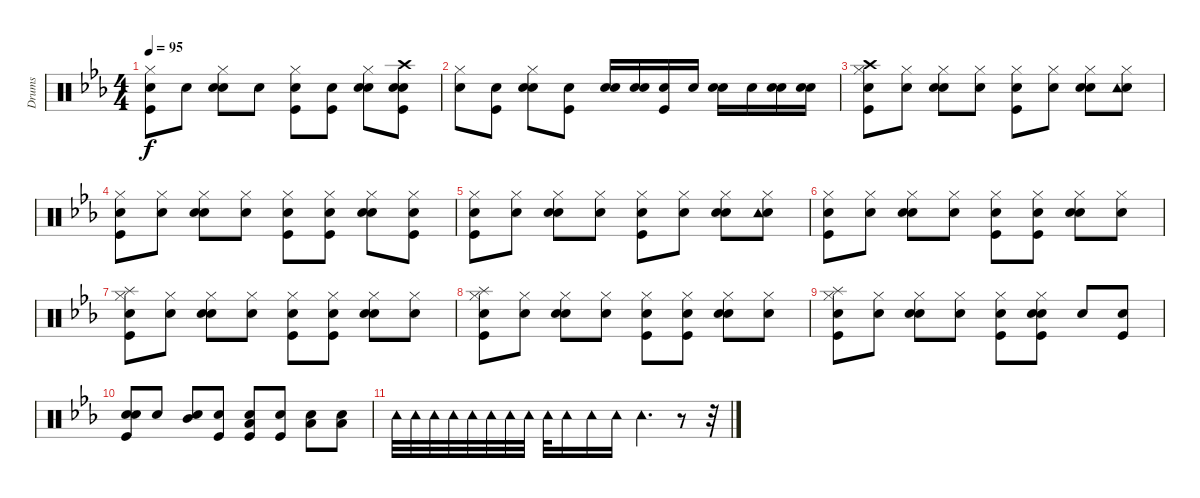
\track ("Drums" "Drums") {instrument percussion}
\staff {score}
\articulation defaults
\ts (4 4)
\tempo 95
\clef neutral
\ks cminor
("Hi-Hat (closed)" "Snare (hit)" "Kick (hit)").8{dy f} "Snare (hit)".8 ("Hi-Hat (closed)" "Snare (hit)" "Snare (hit) 2").8 "Snare (hit)".8 ("Hi-Hat (closed)" "Snare (hit)" "Kick (hit)").8 ("Snare (hit)" "Kick (hit)").8 ("Hi-Hat (closed)" "Snare (hit)" "Snare (hit) 2").8 ("Crash high (hit)" "Snare (hit)" "Snare (hit) 2" "Kick (hit)").8 |
("Hi-Hat (closed)" "Snare (hit)").8 ("Snare (hit)" "Kick (hit)").8 ("Hi-Hat (closed)" "Snare (hit)" "Snare (hit) 2").8 ("Snare (hit)" "Kick (hit)").8 ("Snare (hit)" "Snare (hit) 2").16 ("Snare (hit)" "Snare (hit) 2").16 ("Snare (hit)" "Kick (hit)").16 "Snare (hit)".16 ("Snare (hit)" "Snare (hit) 2").16 "Snare (hit)".16 ("Snare (hit)" "Snare (hit) 2").16 ("Snare (hit)" "Snare (hit) 2").16 |
("Hi-Hat (closed)" "Snare (hit)" "Crash high (hit)" "Kick (hit)").8 ("Hi-Hat (closed)" "Snare (hit)").8 ("Hi-Hat (closed)" "Snare (hit)" "Snare (hit) 2").8 ("Hi-Hat (closed)" "Snare (hit)").8 ("Hi-Hat (closed)" "Snare (hit)" "Kick (hit)").8 ("Hi-Hat (closed)" "Snare (hit)").8 ("Hi-Hat (closed)" "Snare (hit)" "Snare (hit) 2").8 ("Hi-Hat (closed)" "Snare (hit)" "Tambourine (hit)").8 |
("Hi-Hat (closed)" "Snare (hit)" "Kick (hit)").8 ("Hi-Hat (closed)" "Snare (hit)").8 ("Hi-Hat (closed)" "Snare (hit)" "Snare (hit) 2").8 ("Hi-Hat (closed)" "Snare (hit)").8 ("Hi-Hat (closed)" "Snare (hit)" "Kick (hit)").8 ("Hi-Hat (closed)" "Snare (hit)" "Kick (hit)").8 ("Hi-Hat (closed)" "Snare (hit)" "Snare (hit) 2").8 ("Hi-Hat (closed)" "Snare (hit)" "Kick (hit)").8 |
("Hi-Hat (closed)" "Snare (hit)" "Kick (hit)").8 ("Hi-Hat (closed)" "Snare (hit)").8 ("Hi-Hat (closed)" "Snare (hit)" "Snare (hit) 2").8 ("Hi-Hat (closed)" "Snare (hit)").8 ("Hi-Hat (closed)" "Snare (hit)" "Kick (hit)").8 ("Hi-Hat (closed)" "Snare (hit)").8 ("Hi-Hat (closed)" "Snare (hit)" "Snare (hit) 2").8 ("Hi-Hat (closed)" "Snare (hit)" "Tambourine (hit)").8 |
("Hi-Hat (closed)" "Snare (hit)" "Kick (hit)").8 ("Hi-Hat (closed)" "Snare (hit)").8 ("Hi-Hat (closed)" "Snare (hit)" "Snare (hit) 2").8 ("Hi-Hat (closed)" "Snare (hit)").8 ("Hi-Hat (closed)" "Snare (hit)" "Kick (hit)").8 ("Hi-Hat (closed)" "Snare (hit)" "Kick (hit)").8 ("Hi-Hat (closed)" "Snare (hit)" "Snare (hit) 2").8 ("Hi-Hat (closed)" "Snare (hit)").8 |
("Hi-Hat (closed)" "Snare (hit)" "Splash (hit)" "Kick (hit)").8 ("Hi-Hat (closed)" "Snare (hit)").8 ("Hi-Hat (closed)" "Snare (hit)" "Snare (hit) 2").8 ("Hi-Hat (closed)" "Snare (hit)").8 ("Hi-Hat (closed)" "Snare (hit)" "Kick (hit)").8 ("Hi-Hat (closed)" "Snare (hit)" "Kick (hit)").8 ("Hi-Hat (closed)" "Snare (hit)" "Snare (hit) 2").8 ("Hi-Hat (closed)" "Snare (hit)").8 |
("Hi-Hat (closed)" "Snare (hit)" "Splash (hit)" "Kick (hit)").8 ("Hi-Hat (closed)" "Snare (hit)").8 ("Hi-Hat (closed)" "Snare (hit)" "Snare (hit) 2").8 ("Hi-Hat (closed)" "Snare (hit)").8 ("Hi-Hat (closed)" "Snare (hit)" "Kick (hit)").8 ("Hi-Hat (closed)" "Snare (hit)" "Kick (hit)").8 ("Hi-Hat (closed)" "Snare (hit)" "Snare (hit) 2").8 ("Hi-Hat (closed)" "Snare (hit)").8 |
("Hi-Hat (closed)" "Snare (hit)" "Splash (hit)" "Kick (hit)").8 ("Hi-Hat (closed)" "Snare (hit)").8 ("Hi-Hat (closed)" "Snare (hit)" "Snare (hit) 2").8 ("Hi-Hat (closed)" "Snare (hit)").8 ("Hi-Hat (closed)" "Snare (hit)" "Kick (hit)").8 ("Hi-Hat (closed)" "Snare (hit)" "Snare (hit) 2" "Kick (hit)").8 "Snare (hit)".8 ("Snare (hit)" "Kick (hit)").8 |
("Snare (hit)" "Snare (hit) 2" "Kick (hit)").8 "Snare (hit)".8 ("Snare (hit)" "Mid Tom (hit)").8 ("Snare (hit)" "Kick (hit)").8 ("Snare (hit)" "Low Tom (hit)" "Kick (hit)").8 ("Snare (hit)" "Kick (hit)").8 ("Snare (hit)" "Low Floor Tom (hit)").8 ("Snare (hit)" "Low Floor Tom (hit)").8 |
"Tambourine (hit)".32 "Tambourine (hit)".32 "Tambourine (hit)".32 "Tambourine (hit)".32 "Tambourine (hit)".32 "Tambourine (hit)".32 "Tambourine (hit)".32 "Tambourine (hit)".32 "Tambourine (hit)".32 "Tambourine (hit)".16 "Tambourine (hit)".16 "Tambourine (hit)".16 "Tambourine (hit)".4{d} r.8 r.32
